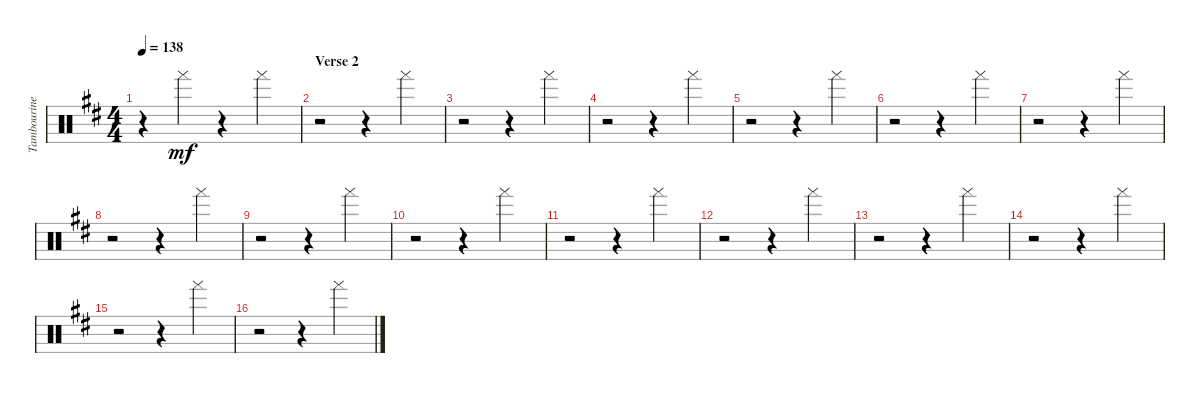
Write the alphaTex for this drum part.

\track ("Tambourine" "Tambourine") {instrument percussion}
\staff {score}
\articulation defaults
\ts (4 4)
\tempo 138
\clef neutral
\ks d
r.4{dy mf} "Tambourine (hand)".4 r.4 "Tambourine (hand)".4 |
\section ("" "Verse 2")
r.2 r.4 "Tambourine (hand)".4 |
r.2 r.4 "Tambourine (hand)".4 |
r.2 r.4 "Tambourine (hand)".4 |
r.2 r.4 "Tambourine (hand)".4 |
r.2 r.4 "Tambourine (hand)".4 |
r.2 r.4 "Tambourine (hand)".4 |
r.2 r.4 "Tambourine (hand)".4 |
r.2 r.4 "Tambourine (hand)".4 |
r.2 r.4 "Tambourine (hand)".4 |
r.2 r.4 "Tambourine (hand)".4 |
r.2 r.4 "Tambourine (hand)".4 |
r.2 r.4 "Tambourine (hand)".4 |
r.2 r.4 "Tambourine (hand)".4 |
r.2 r.4 "Tambourine (hand)".4 |
r.2 r.4 "Tambourine (hand)".4
